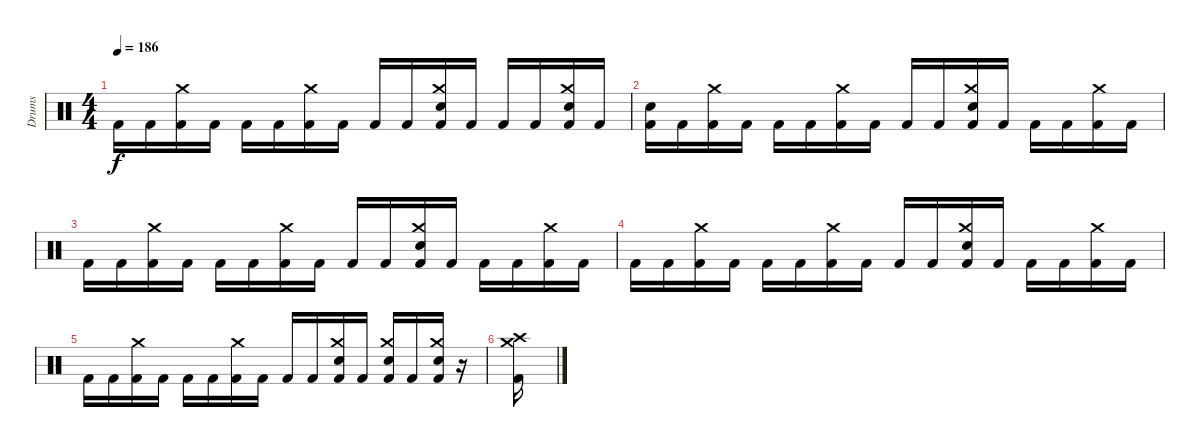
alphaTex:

\track ("Drums" "Drums") {instrument percussion bank 177}
\staff {score}
\articulation defaults
\ts (4 4)
\tempo 186
\clef neutral
\ks c "Kick (hit) 2".16{dy f} "Kick (hit) 2".16
("Crash medium (hit)" "Kick (hit) 2").16 "Kick (hit) 2".16 "Kick (hit) 2".16 "Kick (hit) 2".16 ("Crash medium (hit)" "Kick (hit) 2").16 "Kick (hit) 2".16 "Kick (hit) 2".16 "Kick (hit) 2".16 ("Crash medium (hit)" "Snare (hit) 2" "Kick (hit) 2").16 "Kick (hit) 2".16 "Kick (hit) 2".16 "Kick (hit) 2".16 ("Crash medium (hit)" "Snare (hit) 2" "Kick (hit) 2").16 "Kick (hit) 2".16 |
("Snare (hit) 2" "Kick (hit) 2").16 "Kick (hit) 2".16 ("Crash medium (hit)" "Kick (hit) 2").16 "Kick (hit) 2".16 "Kick (hit) 2".16 "Kick (hit) 2".16 ("Crash medium (hit)" "Kick (hit) 2").16 "Kick (hit) 2".16 "Kick (hit) 2".16 "Kick (hit) 2".16 ("Crash medium (hit)" "Snare (hit) 2" "Kick (hit) 2").16 "Kick (hit) 2".16 "Kick (hit) 2".16 "Kick (hit) 2".16 ("Crash medium (hit)" "Kick (hit) 2").16 "Kick (hit) 2".16 |
"Kick (hit) 2".16 "Kick (hit) 2".16 ("Crash medium (hit)" "Kick (hit) 2").16 "Kick (hit) 2".16 "Kick (hit) 2".16 "Kick (hit) 2".16 ("Crash medium (hit)" "Kick (hit) 2").16 "Kick (hit) 2".16 "Kick (hit) 2".16 "Kick (hit) 2".16 ("Crash medium (hit)" "Snare (hit) 2" "Kick (hit) 2").16 "Kick (hit) 2".16 "Kick (hit) 2".16 "Kick (hit) 2".16 ("Crash medium (hit)" "Kick (hit) 2").16 "Kick (hit) 2".16 |
"Kick (hit) 2".16 "Kick (hit) 2".16 ("Crash medium (hit)" "Kick (hit) 2").16 "Kick (hit) 2".16 "Kick (hit) 2".16 "Kick (hit) 2".16 ("Crash medium (hit)" "Kick (hit) 2").16 "Kick (hit) 2".16 "Kick (hit) 2".16 "Kick (hit) 2".16 ("Crash medium (hit)" "Snare (hit) 2" "Kick (hit) 2").16 "Kick (hit) 2".16 "Kick (hit) 2".16 "Kick (hit) 2".16 ("Crash medium (hit)" "Kick (hit) 2").16 "Kick (hit) 2".16 |
"Kick (hit) 2".16 "Kick (hit) 2".16 ("Crash medium (hit)" "Kick (hit) 2").16 "Kick (hit) 2".16 "Kick (hit) 2".16 "Kick (hit) 2".16 ("Crash medium (hit)" "Kick (hit) 2").16 "Kick (hit) 2".16 "Kick (hit) 2".16 "Kick (hit) 2".16 ("Crash medium (hit)" "Snare (hit) 2" "Kick (hit) 2").16 "Kick (hit) 2".16 ("Crash medium (hit)" "Snare (hit) 2" "Kick (hit) 2").16 "Kick (hit) 2".16 ("Crash medium (hit)" "Snare (hit) 2" "Kick (hit) 2").16 r.16 |
("Crash high (hit)" "Crash medium (hit)" "Kick (hit) 2").16
